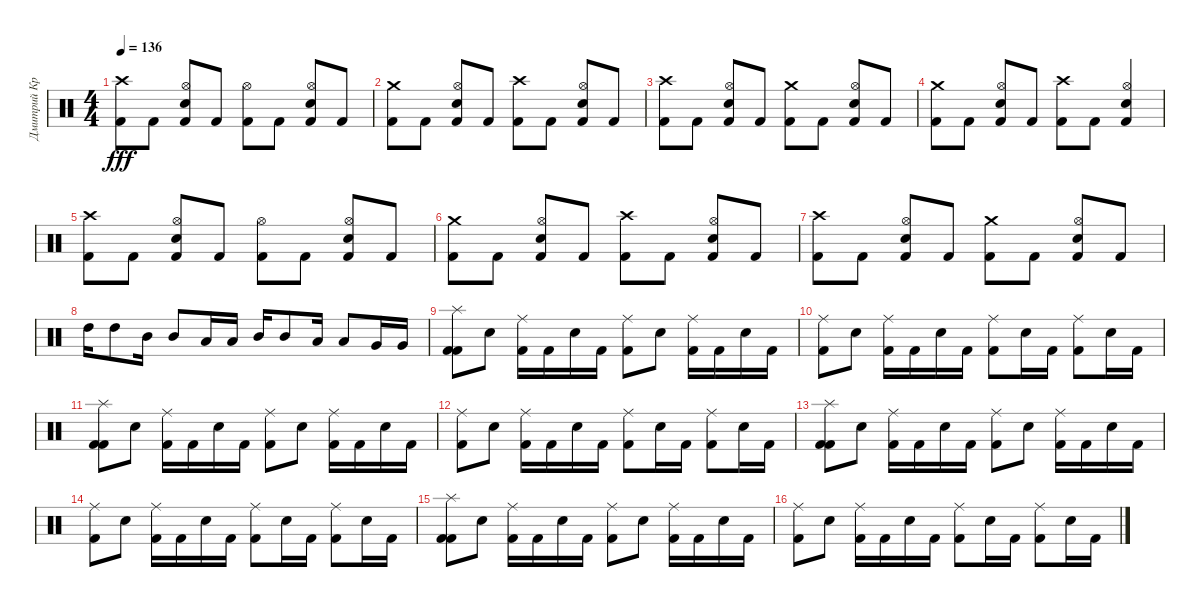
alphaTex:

\track ("Дмитрий Кривенков" "Дмитрий Кр") {instrument percussion}
\staff {score}
\articulation defaults
\ts (4 4)
\tempo 136
\clef neutral
\ks c
("Crash high (hit)" "Kick (hit) 2").8{dy fff} "Kick (hit) 2".8 ("Hi-Hat (open)" "Kick (hit) 2" "Electric Snare (hit)").8 "Kick (hit) 2".8 ("Hi-Hat (open)" "Kick (hit) 2").8 "Kick (hit) 2".8 ("Hi-Hat (open)" "Kick (hit) 2" "Electric Snare (hit)").8 "Kick (hit) 2".8 |
("Kick (hit) 2" "Crash medium (hit)").8 "Kick (hit) 2".8 ("Electric Snare (hit)" "Kick (hit) 2" "Hi-Hat (open)").8 "Kick (hit) 2".8 ("Kick (hit) 2" "Crash high (hit)").8 "Kick (hit) 2".8 ("Electric Snare (hit)" "Kick (hit) 2" "Hi-Hat (open)").8 "Kick (hit) 2".8 |
("Crash high (hit)" "Kick (hit) 2").8 "Kick (hit) 2".8 ("Electric Snare (hit)" "Hi-Hat (open)" "Kick (hit) 2").8 "Kick (hit) 2".8 ("Crash medium (hit)" "Kick (hit) 2").8 "Kick (hit) 2".8 ("Electric Snare (hit)" "Hi-Hat (open)" "Kick (hit) 2").8 "Kick (hit) 2".8 |
("Crash medium (hit)" "Kick (hit) 2").8 "Kick (hit) 2".8 ("Hi-Hat (open)" "Electric Snare (hit)" "Kick (hit) 2").8 "Kick (hit) 2".8 ("Crash high (hit)" "Kick (hit) 2").8 "Kick (hit) 2".8 ("Hi-Hat (open)" "Electric Snare (hit)" "Kick (hit) 2").4 |
("Crash high (hit)" "Kick (hit) 2").8 "Kick (hit) 2".8 ("Kick (hit) 2" "Electric Snare (hit)" "Hi-Hat (open)").8 "Kick (hit) 2".8 ("Hi-Hat (open)" "Kick (hit) 2").8 "Kick (hit) 2".8 ("Electric Snare (hit)" "Kick (hit) 2" "Hi-Hat (open)").8 "Kick (hit) 2".8 |
("Kick (hit) 2" "Crash medium (hit)").8 "Kick (hit) 2".8 ("Electric Snare (hit)" "Hi-Hat (open)" "Kick (hit) 2").8 "Kick (hit) 2".8 ("Kick (hit) 2" "Crash high (hit)").8 "Kick (hit) 2".8 ("Electric Snare (hit)" "Hi-Hat (open)" "Kick (hit) 2").8 "Kick (hit) 2".8 |
("Kick (hit) 2" "Crash high (hit)").8 "Kick (hit) 2".8 ("Electric Snare (hit)" "Hi-Hat (open)" "Kick (hit) 2").8 "Kick (hit) 2".8 ("Crash medium (hit)" "Kick (hit) 2").8 "Kick (hit) 2".8 ("Electric Snare (hit)" "Hi-Hat (open)" "Kick (hit) 2").8 "Kick (hit) 2".8 |
"High Tom (hit)".16 "High Tom (hit)".8 "Mid Tom (hit)".16 "Mid Tom (hit)".8 "Low Tom (hit)".16 "Low Tom (hit)".16 "Mid Tom (hit)".16 "Mid Tom (hit)".8 "Low Tom (hit)".16 "Low Tom (hit)".8 "Very Low Tom (hit)".16 "Very Low Tom (hit)".16 |
("Splash (hit)" "Kick (hit) 2" "Kick (hit) 2").8 "Electric Snare (hit)".8 ("Kick (hit) 2" "Ride (middle)").16 "Kick (hit) 2".16 "Electric Snare (hit)".16 "Kick (hit) 2".16 ("Kick (hit) 2" "Ride (middle)").8 "Electric Snare (hit)".8 ("Ride (middle)" "Kick (hit) 2").16 "Kick (hit) 2".16 "Electric Snare (hit)".16 "Kick (hit) 2".16 |
("Ride (middle)" "Kick (hit) 2").8 "Electric Snare (hit)".8 ("Ride (middle)" "Kick (hit) 2").16 "Kick (hit) 2".16 "Electric Snare (hit)".16 "Kick (hit) 2".16 ("Kick (hit) 2" "Ride (middle)").8 "Electric Snare (hit)".16 "Kick (hit) 2".16 ("Ride (middle)" "Kick (hit) 2").8 "Electric Snare (hit)".16 "Kick (hit) 2".16 |
("Kick (hit) 2" "Kick (hit) 2" "Splash (hit)").8 "Electric Snare (hit)".8 ("Ride (middle)" "Kick (hit) 2").16 "Kick (hit) 2".16 "Electric Snare (hit)".16 "Kick (hit) 2".16 ("Ride (middle)" "Kick (hit) 2").8 "Electric Snare (hit)".8 ("Ride (middle)" "Kick (hit) 2").16 "Kick (hit) 2".16 "Electric Snare (hit)".16 "Kick (hit) 2".16 |
("Ride (middle)" "Kick (hit) 2").8 "Electric Snare (hit)".8 ("Ride (middle)" "Kick (hit) 2").16 "Kick (hit) 2".16 "Electric Snare (hit)".16 "Kick (hit) 2".16 ("Ride (middle)" "Kick (hit) 2").8 "Electric Snare (hit)".16 "Kick (hit) 2".16 ("Ride (middle)" "Kick (hit) 2").8 "Electric Snare (hit)".16 "Kick (hit) 2".16 |
("Splash (hit)" "Kick (hit) 2" "Kick (hit) 2").8 "Electric Snare (hit)".8 ("Kick (hit) 2" "Ride (middle)").16 "Kick (hit) 2".16 "Electric Snare (hit)".16 "Kick (hit) 2".16 ("Kick (hit) 2" "Ride (middle)").8 "Electric Snare (hit)".8 ("Ride (middle)" "Kick (hit) 2").16 "Kick (hit) 2".16 "Electric Snare (hit)".16 "Kick (hit) 2".16 |
("Ride (middle)" "Kick (hit) 2").8 "Electric Snare (hit)".8 ("Ride (middle)" "Kick (hit) 2").16 "Kick (hit) 2".16 "Electric Snare (hit)".16 "Kick (hit) 2".16 ("Kick (hit) 2" "Ride (middle)").8 "Electric Snare (hit)".16 "Kick (hit) 2".16 ("Ride (middle)" "Kick (hit) 2").8 "Electric Snare (hit)".16 "Kick (hit) 2".16 |
("Kick (hit) 2" "Kick (hit) 2" "Splash (hit)").8 "Electric Snare (hit)".8 ("Ride (middle)" "Kick (hit) 2").16 "Kick (hit) 2".16 "Electric Snare (hit)".16 "Kick (hit) 2".16 ("Ride (middle)" "Kick (hit) 2").8 "Electric Snare (hit)".8 ("Ride (middle)" "Kick (hit) 2").16 "Kick (hit) 2".16 "Electric Snare (hit)".16 "Kick (hit) 2".16 |
("Ride (middle)" "Kick (hit) 2").8 "Electric Snare (hit)".8 ("Ride (middle)" "Kick (hit) 2").16 "Kick (hit) 2".16 "Electric Snare (hit)".16 "Kick (hit) 2".16 ("Ride (middle)" "Kick (hit) 2").8 "Electric Snare (hit)".16 "Kick (hit) 2".16 ("Ride (middle)" "Kick (hit) 2").8 "Electric Snare (hit)".16 "Kick (hit) 2".16
